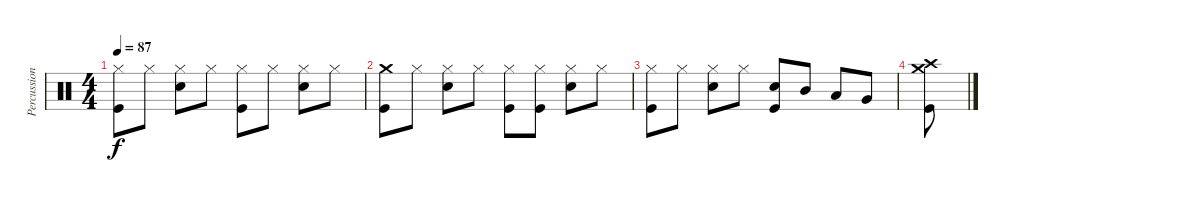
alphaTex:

\track ("Percussion" "Percussion") {instrument percussion}
\staff {score}
\articulation defaults
\ts (4 4)
\tempo 87
\clef neutral
\ks c
("Hi-Hat (closed)" "Kick (hit)").8{dy f} "Hi-Hat (closed)".8 ("Hi-Hat (closed)" "Electric Snare (hit)").8 "Hi-Hat (closed)".8 ("Hi-Hat (closed)" "Kick (hit)").8 "Hi-Hat (closed)".8 ("Hi-Hat (closed)" "Electric Snare (hit)").8 "Hi-Hat (closed)".8 |
("Crash medium (hit)" "Kick (hit)").8 "Hi-Hat (closed)".8 ("Hi-Hat (closed)" "Electric Snare (hit)").8 "Hi-Hat (closed)".8 ("Hi-Hat (closed)" "Kick (hit)").8 ("Hi-Hat (closed)" "Kick (hit)").8 ("Hi-Hat (closed)" "Electric Snare (hit)").8 "Hi-Hat (closed)".8 |
("Hi-Hat (closed)" "Kick (hit)").8 "Hi-Hat (closed)".8 ("Hi-Hat (closed)" "Electric Snare (hit)").8 "Hi-Hat (closed)".8 ("Electric Snare (hit)" "Kick (hit)").8 "Mid Tom (hit)".8 "Low Tom (hit)".8 "Very Low Tom (hit)".8 |
("Crash high (hit)" "Crash medium (hit)" "Kick (hit)").8
